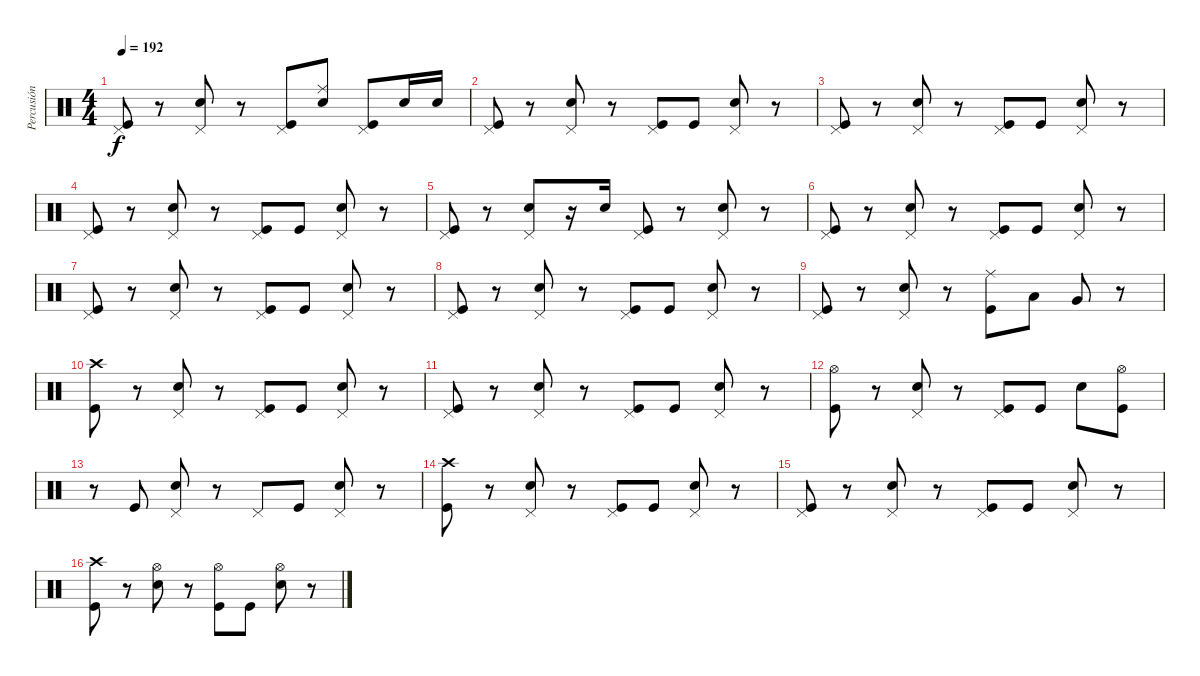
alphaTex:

\track ("Percusión" "Percusión") {instrument percussion}
\staff {score}
\articulation defaults
\ts (4 4)
\tempo 192
\clef neutral
\ks c
("Kick (hit)" "Pedal Hi-Hat (hit)").8{dy f} r.8 ("Electric Snare (hit)" "Pedal Hi-Hat (hit)").8 r.8 ("Kick (hit)" "Pedal Hi-Hat (hit)").8 ("Electric Snare (hit)" "Ride (middle)").8 ("Kick (hit)" "Pedal Hi-Hat (hit)").8 "Electric Snare (hit)".16 "Electric Snare (hit)".16 |
("Kick (hit)" "Pedal Hi-Hat (hit)").8 r.8 ("Electric Snare (hit)" "Pedal Hi-Hat (hit)").8 r.8 ("Kick (hit)" "Pedal Hi-Hat (hit)").8 "Kick (hit)".8 ("Electric Snare (hit)" "Pedal Hi-Hat (hit)").8 r.8 |
("Kick (hit)" "Pedal Hi-Hat (hit)").8 r.8 ("Electric Snare (hit)" "Pedal Hi-Hat (hit)").8 r.8 ("Kick (hit)" "Pedal Hi-Hat (hit)").8 "Kick (hit)".8 ("Electric Snare (hit)" "Pedal Hi-Hat (hit)").8 r.8 |
("Kick (hit)" "Pedal Hi-Hat (hit)").8 r.8 ("Electric Snare (hit)" "Pedal Hi-Hat (hit)").8 r.8 ("Kick (hit)" "Pedal Hi-Hat (hit)").8 "Kick (hit)".8 ("Electric Snare (hit)" "Pedal Hi-Hat (hit)").8 r.8 |
("Kick (hit)" "Pedal Hi-Hat (hit)").8 r.8 ("Electric Snare (hit)" "Pedal Hi-Hat (hit)").8 r.16 "Electric Snare (hit)".16 ("Kick (hit)" "Pedal Hi-Hat (hit)").8 r.8 ("Electric Snare (hit)" "Pedal Hi-Hat (hit)").8 r.8 |
("Kick (hit)" "Pedal Hi-Hat (hit)").8 r.8 ("Electric Snare (hit)" "Pedal Hi-Hat (hit)").8 r.8 ("Kick (hit)" "Pedal Hi-Hat (hit)").8 "Kick (hit)".8 ("Electric Snare (hit)" "Pedal Hi-Hat (hit)").8 r.8 |
("Kick (hit)" "Pedal Hi-Hat (hit)").8 r.8 ("Electric Snare (hit)" "Pedal Hi-Hat (hit)").8 r.8 ("Kick (hit)" "Pedal Hi-Hat (hit)").8 "Kick (hit)".8 ("Electric Snare (hit)" "Pedal Hi-Hat (hit)").8 r.8 |
("Kick (hit)" "Pedal Hi-Hat (hit)").8 r.8 ("Electric Snare (hit)" "Pedal Hi-Hat (hit)").8 r.8 ("Kick (hit)" "Pedal Hi-Hat (hit)").8 "Kick (hit)".8 ("Electric Snare (hit)" "Pedal Hi-Hat (hit)").8 r.8 |
("Kick (hit)" "Pedal Hi-Hat (hit)").8 r.8 ("Electric Snare (hit)" "Pedal Hi-Hat (hit)").8 r.8 ("Kick (hit)" "Ride (middle)").8 "Low Tom (hit)".8 "Very Low Tom (hit)".8 r.8 |
("Kick (hit)" "Crash high (hit)").8 r.8 ("Electric Snare (hit)" "Pedal Hi-Hat (hit)").8 r.8 ("Kick (hit)" "Pedal Hi-Hat (hit)").8 "Kick (hit)".8 ("Electric Snare (hit)" "Pedal Hi-Hat (hit)").8 r.8 |
("Kick (hit)" "Pedal Hi-Hat (hit)").8 r.8 ("Electric Snare (hit)" "Pedal Hi-Hat (hit)").8 r.8 ("Kick (hit)" "Pedal Hi-Hat (hit)").8 "Kick (hit)".8 ("Electric Snare (hit)" "Pedal Hi-Hat (hit)").8 r.8 |
("Kick (hit)" "Hi-Hat (open)").8 r.8 ("Electric Snare (hit)" "Pedal Hi-Hat (hit)").8 r.8 ("Kick (hit)" "Pedal Hi-Hat (hit)").8 "Kick (hit)".8 "Electric Snare (hit)".8 ("Kick (hit)" "Hi-Hat (open)").8 |
r.8 "Kick (hit)".8 ("Electric Snare (hit)" "Pedal Hi-Hat (hit)").8 r.8 "Pedal Hi-Hat (hit)".8 "Kick (hit)".8 ("Electric Snare (hit)" "Pedal Hi-Hat (hit)").8 r.8 |
("Kick (hit)" "Crash high (hit)").8 r.8 ("Electric Snare (hit)" "Pedal Hi-Hat (hit)").8 r.8 ("Kick (hit)" "Pedal Hi-Hat (hit)").8 "Kick (hit)".8 ("Electric Snare (hit)" "Pedal Hi-Hat (hit)").8 r.8 |
("Kick (hit)" "Pedal Hi-Hat (hit)").8 r.8 ("Electric Snare (hit)" "Pedal Hi-Hat (hit)").8 r.8 ("Kick (hit)" "Pedal Hi-Hat (hit)").8 "Kick (hit)".8 ("Electric Snare (hit)" "Pedal Hi-Hat (hit)").8 r.8 |
("Kick (hit)" "Crash high (hit)").8 r.8 ("Electric Snare (hit)" "Hi-Hat (open)").8 r.8 ("Kick (hit)" "Hi-Hat (open)").8 "Kick (hit)".8 ("Electric Snare (hit)" "Hi-Hat (open)").8 r.8
